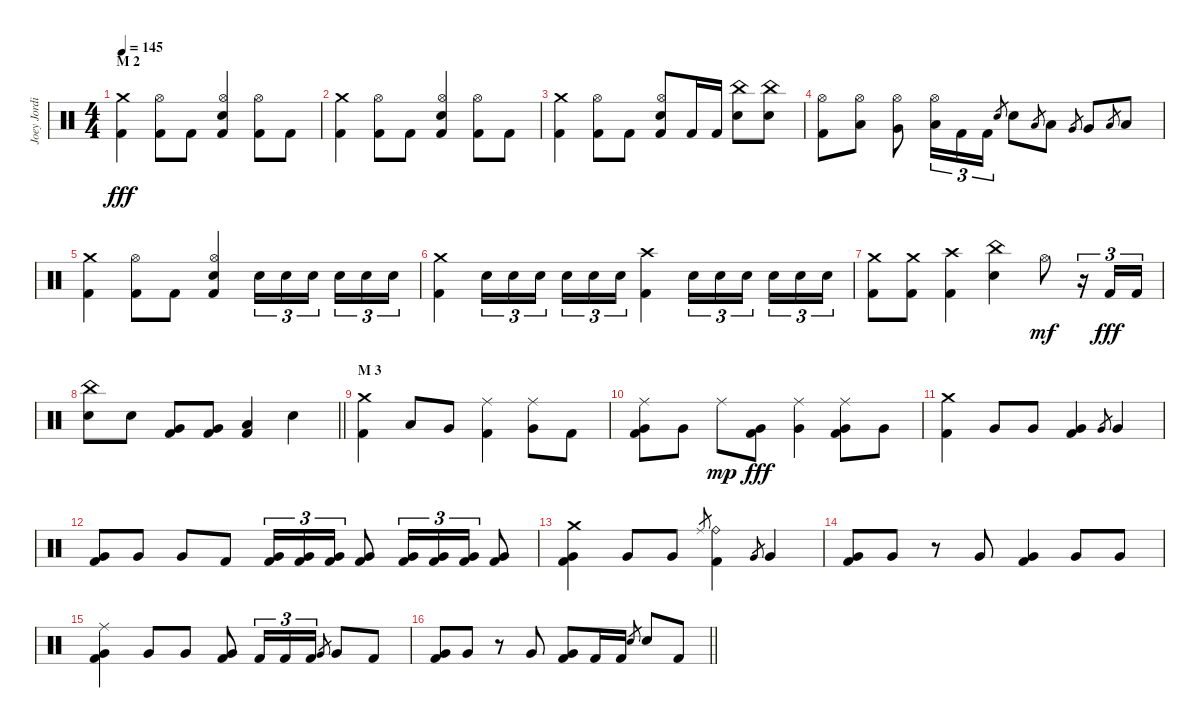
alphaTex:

\track ("Joey Jordison" "Joey Jordi") {instrument percussion}
\staff {score}
\articulation defaults
\ts (4 4)
\section ("" "M 2")
\tempo 145
\clef neutral
\ks c
("Crash medium (hit)" "Kick (hit) 2").4{dy fff} ("Hi-Hat (open)" "Kick (hit) 2").8 "Kick (hit) 2".8 ("Hi-Hat (open)" "Electric Snare (hit)" "Kick (hit) 2").4 ("Hi-Hat (open)" "Kick (hit) 2").8 "Kick (hit) 2".8 |
("Crash medium (hit)" "Kick (hit) 2").4 ("Hi-Hat (open)" "Kick (hit) 2").8 "Kick (hit) 2".8 ("Hi-Hat (open)" "Electric Snare (hit)" "Kick (hit) 2").4 ("Hi-Hat (open)" "Kick (hit) 2").8 "Kick (hit) 2".8 |
("Crash medium (hit)" "Kick (hit) 2").4 ("Hi-Hat (open)" "Kick (hit) 2").8 "Kick (hit) 2".8 ("Hi-Hat (open)" "Electric Snare (hit)" "Kick (hit) 2").8 "Kick (hit) 2".16 "Kick (hit) 2".16 ("China (hit)" "Electric Snare (hit)").8 ("China (hit)" "Electric Snare (hit)").8 |
("Hi-Hat (open)" "Kick (hit) 2").8 ("Hi-Hat (open)" "Low Tom (hit)").8 ("Hi-Hat (open)" "Very Low Tom (hit)").8 ("Hi-Hat (open)" "Low Floor Tom (hit)").16{tu (3 2)} "Kick (hit) 2".16{tu (3 2)} "Kick (hit) 2".16{tu (3 2)} "Electric Snare (hit)".8{gr} "Electric Snare (hit)".8 "Low Tom (hit)".8{gr} "Low Tom (hit)".8 "Very Low Tom (hit)".8{gr} "Very Low Tom (hit)".8 "Low Floor Tom (hit)".8{gr} "Low Floor Tom (hit)".8 |
("Crash medium (hit)" "Kick (hit) 2").4 ("Hi-Hat (open)" "Kick (hit) 2").8 "Kick (hit) 2".8 ("Hi-Hat (open)" "Electric Snare (hit)" "Kick (hit) 2").4 "Electric Snare (hit)".16{tu (3 2)} "Electric Snare (hit)".16{tu (3 2)} "Electric Snare (hit)".16{tu (3 2) beam splitsecondary} "Electric Snare (hit)".16{tu (3 2)} "Electric Snare (hit)".16{tu (3 2)} "Electric Snare (hit)".16{tu (3 2)} |
("Crash medium (hit)" "Kick (hit) 2").4 "Electric Snare (hit)".16{tu (3 2)} "Electric Snare (hit)".16{tu (3 2)} "Electric Snare (hit)".16{tu (3 2) beam splitsecondary} "Electric Snare (hit)".16{tu (3 2)} "Electric Snare (hit)".16{tu (3 2)} "Electric Snare (hit)".16{tu (3 2)} ("Crash high (hit)" "Kick (hit) 2").4 "Electric Snare (hit)".16{tu (3 2)} "Electric Snare (hit)".16{tu (3 2)} "Electric Snare (hit)".16{tu (3 2) beam splitsecondary} "Electric Snare (hit)".16{tu (3 2)} "Electric Snare (hit)".16{tu (3 2)} "Electric Snare (hit)".16{tu (3 2)} |
("Crash medium (hit)" "Kick (hit) 2").8 ("Crash medium (hit)" "Kick (hit) 2").8 ("Crash high (hit)" "Kick (hit) 2").4 ("China (hit)" "Electric Snare (hit)").4 "Hi-Hat (open)".8{dy mf} r.16{tu (3 2)} "Kick (hit) 2".16{tu (3 2) dy fff} "Kick (hit) 2".16{tu (3 2)} |
\barLineRight lightlight
("China (hit)" "Electric Snare (hit)").8 "Electric Snare (hit)".8 ("Very Low Tom (hit)" "Kick (hit) 2").8 ("Very Low Tom (hit)" "Kick (hit) 2").8 ("Low Floor Tom (hit)" "Kick (hit) 2").4 "Electric Snare (hit)".4 |
\section ("" "M 3")
("Crash medium (hit)" "Kick (hit) 2").4 "Low Floor Tom (hit)".8 "Very Low Tom (hit)".8 ("Ride (middle)" "Kick (hit) 2").4 ("Ride (middle)" "Very Low Tom (hit)").8 "Kick (hit) 2".8 |
("Ride (middle)" "Very Low Tom (hit)" "Kick (hit) 2").8 "Very Low Tom (hit)".8 "Ride (middle)".8{dy mp} ("Very Low Tom (hit)" "Kick (hit) 2").8{dy fff} ("Ride (middle)" "Very Low Tom (hit)").4 ("Ride (middle)" "Very Low Tom (hit)" "Kick (hit) 2").8 "Very Low Tom (hit)".8 |
("Crash medium (hit)" "Kick (hit) 2").4 "Very Low Tom (hit)".8 "Very Low Tom (hit)".8 ("Very Low Tom (hit)" "Kick (hit) 2").4 "Very Low Tom (hit)".8{gr} "Very Low Tom (hit)".4 |
("Very Low Tom (hit)" "Kick (hit) 2").8 "Very Low Tom (hit)".8 "Very Low Tom (hit)".8 "Kick (hit) 2".8 ("Very Low Tom (hit)" "Kick (hit) 2").16{tu (3 2)} ("Very Low Tom (hit)" "Kick (hit) 2").16{tu (3 2)} ("Very Low Tom (hit)" "Kick (hit) 2").16{tu (3 2)} ("Very Low Tom (hit)" "Kick (hit) 2").8 ("Very Low Tom (hit)" "Kick (hit) 2").16{tu (3 2)} ("Very Low Tom (hit)" "Kick (hit) 2").16{tu (3 2)} ("Very Low Tom (hit)" "Kick (hit) 2").16{tu (3 2)} ("Very Low Tom (hit)" "Kick (hit) 2").8 |
("Crash medium (hit)" "Very Low Tom (hit)" "Kick (hit) 2").4 "Very Low Tom (hit)".8 "Very Low Tom (hit)".8 "Ride (middle)".8{gr} ("Ride (bell)" "Kick (hit) 2").4 "Very Low Tom (hit)".8{gr} "Very Low Tom (hit)".4 |
("Very Low Tom (hit)" "Kick (hit) 2").8 "Very Low Tom (hit)".8 r.8 "Very Low Tom (hit)".8 ("Very Low Tom (hit)" "Kick (hit) 2").4 "Very Low Tom (hit)".8 "Very Low Tom (hit)".8 |
("Ride (middle)" "Very Low Tom (hit)" "Kick (hit) 2").4 "Very Low Tom (hit)".8 "Very Low Tom (hit)".8 ("Very Low Tom (hit)" "Kick (hit) 2").8 "Kick (hit) 2".16{tu (3 2)} "Kick (hit) 2".16{tu (3 2)} "Kick (hit) 2".16{tu (3 2)} "Very Low Tom (hit)".8{gr} "Very Low Tom (hit)".8 "Kick (hit) 2".8 |
\barLineRight lightlight
("Very Low Tom (hit)" "Kick (hit) 2").8 "Very Low Tom (hit)".8 r.8 "Very Low Tom (hit)".8 ("Very Low Tom (hit)" "Kick (hit) 2").8 "Kick (hit) 2".16 "Kick (hit) 2".16 "Electric Snare (hit)".8{gr} "Electric Snare (hit)".8 "Kick (hit) 2".8
